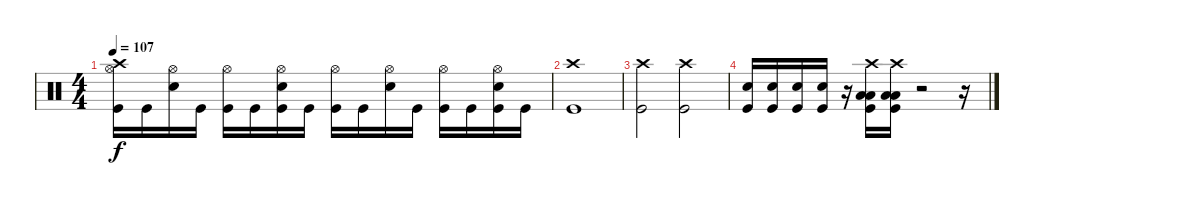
\track "" {instrument percussion}
\staff {score}
\articulation defaults
\ts (4 4)
\tempo 107
\clef neutral
\ks c
("Hi-Hat (open)" "Crash high (hit)" "Kick (hit)").16{dy f} "Kick (hit)".16 ("Hi-Hat (open)" "Snare (hit) 2").16 "Kick (hit)".16 ("Hi-Hat (open)" "Kick (hit)").16 "Kick (hit)".16 ("Hi-Hat (open)" "Snare (hit) 2" "Kick (hit)").16 "Kick (hit)".16 ("Hi-Hat (open)" "Kick (hit)").16 "Kick (hit)".16 ("Hi-Hat (open)" "Snare (hit) 2").16 "Kick (hit)".16 ("Hi-Hat (open)" "Kick (hit)").16 "Kick (hit)".16 ("Hi-Hat (open)" "Snare (hit) 2" "Kick (hit)").16 "Kick (hit)".16 |
("Crash high (hit)" "Kick (hit)").1 |
("Crash high (hit)" "Kick (hit)").2 ("Crash high (hit)" "Kick (hit)").2 |
("Snare (hit) 2" "Kick (hit)").16 ("Snare (hit) 2" "Kick (hit)").16 ("Snare (hit) 2" "Kick (hit)").16 ("Snare (hit) 2" "Kick (hit)").16 r.16 ("Low Tom (hit)" "Low Floor Tom (hit)" "Kick (hit)" "Crash high (hit)").16 ("Low Tom (hit)" "Low Floor Tom (hit)" "Kick (hit)" "Crash high (hit)").16 r.2 r.16
